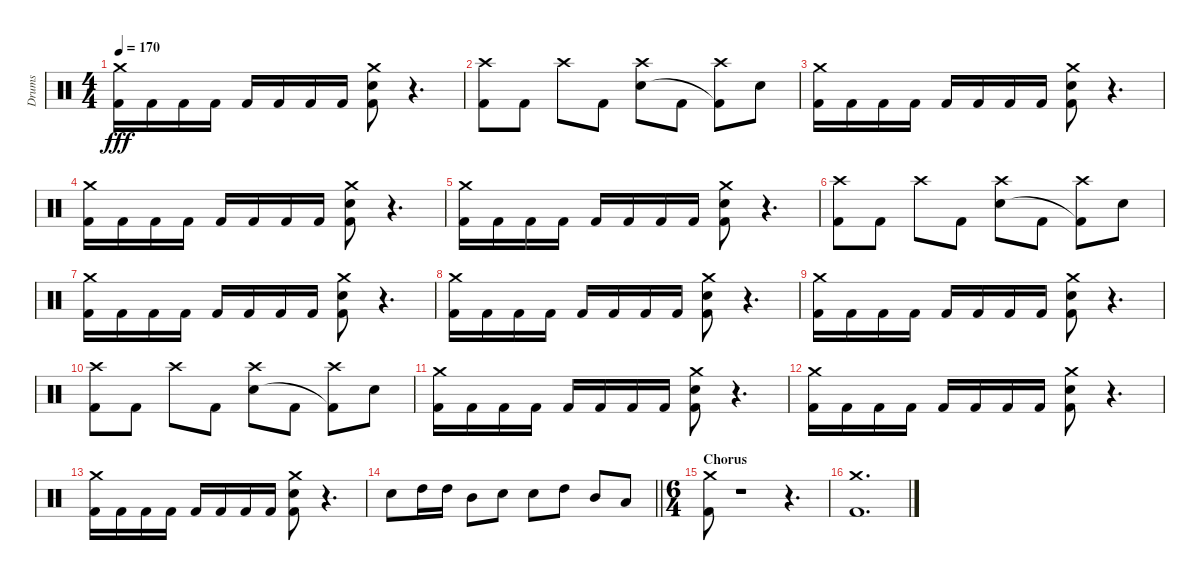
\track ("Drums" "Drums") {instrument percussion}
\staff {score}
\articulation defaults
\ts (4 4)
\tempo 170
\clef neutral
\ks c
("Crash medium (hit)" "Kick (hit) 2").16{dy fff} "Kick (hit) 2".16 "Kick (hit) 2".16 "Kick (hit) 2".16 "Kick (hit) 2".16 "Kick (hit) 2".16 "Kick (hit) 2".16 "Kick (hit) 2".16 ("Crash medium (hit)" "Electric Snare (hit)" "Kick (hit) 2").8 r.4{d} |
("Crash high (hit)" "Kick (hit) 2").8 "Kick (hit) 2".8 "Crash high (hit)".8 "Kick (hit) 2".8 ("Crash high (hit)" "Electric Snare (hit)").8 "Kick (hit) 2".8 ("Crash high (hit)" "Kick (hit) 2"{t}).8 "Electric Snare (hit)".8 |
("Crash medium (hit)" "Kick (hit) 2").16 "Kick (hit) 2".16 "Kick (hit) 2".16 "Kick (hit) 2".16 "Kick (hit) 2".16 "Kick (hit) 2".16 "Kick (hit) 2".16 "Kick (hit) 2".16 ("Crash medium (hit)" "Electric Snare (hit)" "Kick (hit) 2").8 r.4{d} |
("Crash medium (hit)" "Kick (hit) 2").16 "Kick (hit) 2".16 "Kick (hit) 2".16 "Kick (hit) 2".16 "Kick (hit) 2".16 "Kick (hit) 2".16 "Kick (hit) 2".16 "Kick (hit) 2".16 ("Crash medium (hit)" "Electric Snare (hit)" "Kick (hit) 2").8 r.4{d} |
("Crash medium (hit)" "Kick (hit) 2").16 "Kick (hit) 2".16 "Kick (hit) 2".16 "Kick (hit) 2".16 "Kick (hit) 2".16 "Kick (hit) 2".16 "Kick (hit) 2".16 "Kick (hit) 2".16 ("Crash medium (hit)" "Electric Snare (hit)" "Kick (hit) 2").8 r.4{d} |
("Crash high (hit)" "Kick (hit) 2").8 "Kick (hit) 2".8 "Crash high (hit)".8 "Kick (hit) 2".8 ("Crash high (hit)" "Electric Snare (hit)").8 "Kick (hit) 2".8 ("Crash high (hit)" "Kick (hit) 2"{t}).8 "Electric Snare (hit)".8 |
("Crash medium (hit)" "Kick (hit) 2").16 "Kick (hit) 2".16 "Kick (hit) 2".16 "Kick (hit) 2".16 "Kick (hit) 2".16 "Kick (hit) 2".16 "Kick (hit) 2".16 "Kick (hit) 2".16 ("Crash medium (hit)" "Electric Snare (hit)" "Kick (hit) 2").8 r.4{d} |
("Crash medium (hit)" "Kick (hit) 2").16 "Kick (hit) 2".16 "Kick (hit) 2".16 "Kick (hit) 2".16 "Kick (hit) 2".16 "Kick (hit) 2".16 "Kick (hit) 2".16 "Kick (hit) 2".16 ("Crash medium (hit)" "Electric Snare (hit)" "Kick (hit) 2").8 r.4{d} |
("Crash medium (hit)" "Kick (hit) 2").16 "Kick (hit) 2".16 "Kick (hit) 2".16 "Kick (hit) 2".16 "Kick (hit) 2".16 "Kick (hit) 2".16 "Kick (hit) 2".16 "Kick (hit) 2".16 ("Crash medium (hit)" "Electric Snare (hit)" "Kick (hit) 2").8 r.4{d} |
("Crash high (hit)" "Kick (hit) 2").8 "Kick (hit) 2".8 "Crash high (hit)".8 "Kick (hit) 2".8 ("Crash high (hit)" "Electric Snare (hit)").8 "Kick (hit) 2".8 ("Crash high (hit)" "Kick (hit) 2"{t}).8 "Electric Snare (hit)".8 |
("Crash medium (hit)" "Kick (hit) 2").16 "Kick (hit) 2".16 "Kick (hit) 2".16 "Kick (hit) 2".16 "Kick (hit) 2".16 "Kick (hit) 2".16 "Kick (hit) 2".16 "Kick (hit) 2".16 ("Crash medium (hit)" "Electric Snare (hit)" "Kick (hit) 2").8 r.4{d} |
("Crash medium (hit)" "Kick (hit) 2").16 "Kick (hit) 2".16 "Kick (hit) 2".16 "Kick (hit) 2".16 "Kick (hit) 2".16 "Kick (hit) 2".16 "Kick (hit) 2".16 "Kick (hit) 2".16 ("Crash medium (hit)" "Electric Snare (hit)" "Kick (hit) 2").8 r.4{d} |
("Crash medium (hit)" "Kick (hit) 2").16 "Kick (hit) 2".16 "Kick (hit) 2".16 "Kick (hit) 2".16 "Kick (hit) 2".16 "Kick (hit) 2".16 "Kick (hit) 2".16 "Kick (hit) 2".16 ("Crash medium (hit)" "Electric Snare (hit)" "Kick (hit) 2").8 r.4{d} |
\barLineRight lightlight "Electric Snare (hit)".8 "High Tom (hit)".16 "High Tom (hit)".16 "Mid Tom (hit)".8 "Electric Snare (hit)".8 "Electric Snare (hit)".8 "High Tom (hit)".8 "Mid Tom (hit)".8 "Low Tom (hit)".8
|
\ts (6 4)
\section ("" "Chorus")
("Crash medium (hit)" "Kick (hit) 2").8 r.1{volume 0} r.4{d} |
("Crash medium (hit)" "Kick (hit) 2").1{d volume 13}
